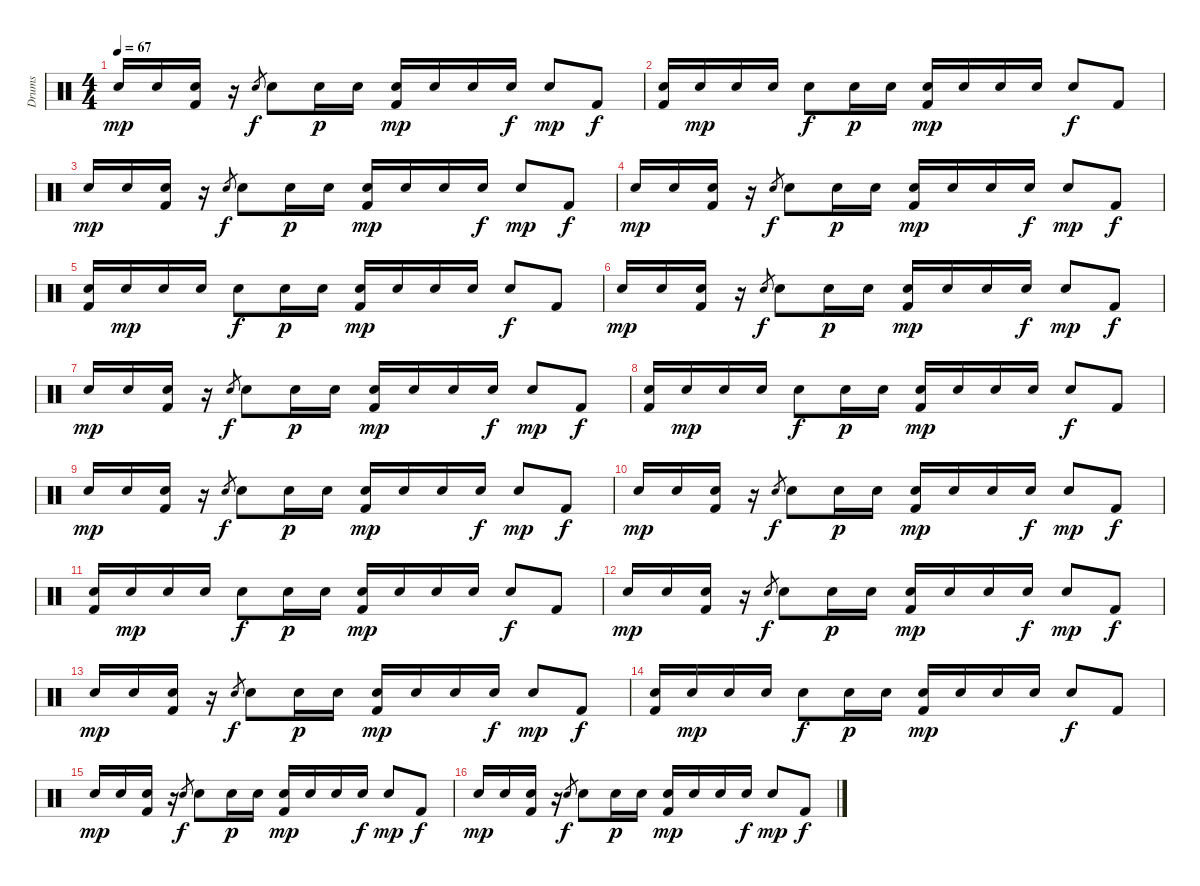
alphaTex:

\track ("Drums" "Drums") {instrument percussion}
\staff {score}
\articulation defaults
\ts (4 4)
\tempo 67
\clef neutral
\ks c "Electric Snare (hit)".16{dy mp} "Electric Snare (hit)".16
("Electric Snare (hit)" "Kick (hit) 2").16 r.16 "Electric Snare (hit)".8{gr dy f} "Electric Snare (hit)".8 "Electric Snare (hit)".16{dy p} "Electric Snare (hit)".16 ("Electric Snare (hit)" "Kick (hit) 2").16{dy mp} "Electric Snare (hit)".16 "Electric Snare (hit)".16 "Electric Snare (hit)".16{dy f} "Electric Snare (hit)".8{dy mp} "Kick (hit) 2".8{dy f} |
("Electric Snare (hit)" "Kick (hit) 2").16 "Electric Snare (hit)".16{dy mp} "Electric Snare (hit)".16 "Electric Snare (hit)".16 "Electric Snare (hit)".8{dy f} "Electric Snare (hit)".16{dy p} "Electric Snare (hit)".16 ("Electric Snare (hit)" "Kick (hit) 2").16{dy mp} "Electric Snare (hit)".16 "Electric Snare (hit)".16 "Electric Snare (hit)".16 "Electric Snare (hit)".8{dy f} "Kick (hit) 2".8 |
"Electric Snare (hit)".16{dy mp} "Electric Snare (hit)".16 ("Electric Snare (hit)" "Kick (hit) 2").16 r.16 "Electric Snare (hit)".8{gr dy f} "Electric Snare (hit)".8 "Electric Snare (hit)".16{dy p} "Electric Snare (hit)".16 ("Electric Snare (hit)" "Kick (hit) 2").16{dy mp} "Electric Snare (hit)".16 "Electric Snare (hit)".16 "Electric Snare (hit)".16{dy f} "Electric Snare (hit)".8{dy mp} "Kick (hit) 2".8{dy f} |
"Electric Snare (hit)".16{dy mp} "Electric Snare (hit)".16 ("Electric Snare (hit)" "Kick (hit) 2").16 r.16 "Electric Snare (hit)".8{gr dy f} "Electric Snare (hit)".8 "Electric Snare (hit)".16{dy p} "Electric Snare (hit)".16 ("Electric Snare (hit)" "Kick (hit) 2").16{dy mp} "Electric Snare (hit)".16 "Electric Snare (hit)".16 "Electric Snare (hit)".16{dy f} "Electric Snare (hit)".8{dy mp} "Kick (hit) 2".8{dy f} |
("Electric Snare (hit)" "Kick (hit) 2").16 "Electric Snare (hit)".16{dy mp} "Electric Snare (hit)".16 "Electric Snare (hit)".16 "Electric Snare (hit)".8{dy f} "Electric Snare (hit)".16{dy p} "Electric Snare (hit)".16 ("Electric Snare (hit)" "Kick (hit) 2").16{dy mp} "Electric Snare (hit)".16 "Electric Snare (hit)".16 "Electric Snare (hit)".16 "Electric Snare (hit)".8{dy f} "Kick (hit) 2".8 |
"Electric Snare (hit)".16{dy mp} "Electric Snare (hit)".16 ("Electric Snare (hit)" "Kick (hit) 2").16 r.16 "Electric Snare (hit)".8{gr dy f} "Electric Snare (hit)".8 "Electric Snare (hit)".16{dy p} "Electric Snare (hit)".16 ("Electric Snare (hit)" "Kick (hit) 2").16{dy mp} "Electric Snare (hit)".16 "Electric Snare (hit)".16 "Electric Snare (hit)".16{dy f} "Electric Snare (hit)".8{dy mp} "Kick (hit) 2".8{dy f} |
"Electric Snare (hit)".16{dy mp} "Electric Snare (hit)".16 ("Electric Snare (hit)" "Kick (hit) 2").16 r.16 "Electric Snare (hit)".8{gr dy f} "Electric Snare (hit)".8 "Electric Snare (hit)".16{dy p} "Electric Snare (hit)".16 ("Electric Snare (hit)" "Kick (hit) 2").16{dy mp} "Electric Snare (hit)".16 "Electric Snare (hit)".16 "Electric Snare (hit)".16{dy f} "Electric Snare (hit)".8{dy mp} "Kick (hit) 2".8{dy f} |
("Electric Snare (hit)" "Kick (hit) 2").16 "Electric Snare (hit)".16{dy mp} "Electric Snare (hit)".16 "Electric Snare (hit)".16 "Electric Snare (hit)".8{dy f} "Electric Snare (hit)".16{dy p} "Electric Snare (hit)".16 ("Electric Snare (hit)" "Kick (hit) 2").16{dy mp} "Electric Snare (hit)".16 "Electric Snare (hit)".16 "Electric Snare (hit)".16 "Electric Snare (hit)".8{dy f} "Kick (hit) 2".8 |
"Electric Snare (hit)".16{dy mp} "Electric Snare (hit)".16 ("Electric Snare (hit)" "Kick (hit) 2").16 r.16 "Electric Snare (hit)".8{gr dy f} "Electric Snare (hit)".8 "Electric Snare (hit)".16{dy p} "Electric Snare (hit)".16 ("Electric Snare (hit)" "Kick (hit) 2").16{dy mp} "Electric Snare (hit)".16 "Electric Snare (hit)".16 "Electric Snare (hit)".16{dy f} "Electric Snare (hit)".8{dy mp} "Kick (hit) 2".8{dy f} |
"Electric Snare (hit)".16{dy mp} "Electric Snare (hit)".16 ("Electric Snare (hit)" "Kick (hit) 2").16 r.16 "Electric Snare (hit)".8{gr dy f} "Electric Snare (hit)".8 "Electric Snare (hit)".16{dy p} "Electric Snare (hit)".16 ("Electric Snare (hit)" "Kick (hit) 2").16{dy mp} "Electric Snare (hit)".16 "Electric Snare (hit)".16 "Electric Snare (hit)".16{dy f} "Electric Snare (hit)".8{dy mp} "Kick (hit) 2".8{dy f} |
("Electric Snare (hit)" "Kick (hit) 2").16 "Electric Snare (hit)".16{dy mp} "Electric Snare (hit)".16 "Electric Snare (hit)".16 "Electric Snare (hit)".8{dy f} "Electric Snare (hit)".16{dy p} "Electric Snare (hit)".16 ("Electric Snare (hit)" "Kick (hit) 2").16{dy mp} "Electric Snare (hit)".16 "Electric Snare (hit)".16 "Electric Snare (hit)".16 "Electric Snare (hit)".8{dy f} "Kick (hit) 2".8 |
"Electric Snare (hit)".16{dy mp} "Electric Snare (hit)".16 ("Electric Snare (hit)" "Kick (hit) 2").16 r.16 "Electric Snare (hit)".8{gr dy f} "Electric Snare (hit)".8 "Electric Snare (hit)".16{dy p} "Electric Snare (hit)".16 ("Electric Snare (hit)" "Kick (hit) 2").16{dy mp} "Electric Snare (hit)".16 "Electric Snare (hit)".16 "Electric Snare (hit)".16{dy f} "Electric Snare (hit)".8{dy mp} "Kick (hit) 2".8{dy f} |
"Electric Snare (hit)".16{dy mp} "Electric Snare (hit)".16 ("Electric Snare (hit)" "Kick (hit) 2").16 r.16 "Electric Snare (hit)".8{gr dy f} "Electric Snare (hit)".8 "Electric Snare (hit)".16{dy p} "Electric Snare (hit)".16 ("Electric Snare (hit)" "Kick (hit) 2").16{dy mp} "Electric Snare (hit)".16 "Electric Snare (hit)".16 "Electric Snare (hit)".16{dy f} "Electric Snare (hit)".8{dy mp} "Kick (hit) 2".8{dy f} |
("Electric Snare (hit)" "Kick (hit) 2").16 "Electric Snare (hit)".16{dy mp} "Electric Snare (hit)".16 "Electric Snare (hit)".16 "Electric Snare (hit)".8{dy f} "Electric Snare (hit)".16{dy p} "Electric Snare (hit)".16 ("Electric Snare (hit)" "Kick (hit) 2").16{dy mp} "Electric Snare (hit)".16 "Electric Snare (hit)".16 "Electric Snare (hit)".16 "Electric Snare (hit)".8{dy f} "Kick (hit) 2".8 |
"Electric Snare (hit)".16{dy mp} "Electric Snare (hit)".16 ("Electric Snare (hit)" "Kick (hit) 2").16 r.16 "Electric Snare (hit)".8{gr dy f} "Electric Snare (hit)".8 "Electric Snare (hit)".16{dy p} "Electric Snare (hit)".16 ("Electric Snare (hit)" "Kick (hit) 2").16{dy mp} "Electric Snare (hit)".16 "Electric Snare (hit)".16 "Electric Snare (hit)".16{dy f} "Electric Snare (hit)".8{dy mp} "Kick (hit) 2".8{dy f} |
"Electric Snare (hit)".16{dy mp} "Electric Snare (hit)".16 ("Electric Snare (hit)" "Kick (hit) 2").16 r.16 "Electric Snare (hit)".8{gr dy f} "Electric Snare (hit)".8 "Electric Snare (hit)".16{dy p} "Electric Snare (hit)".16 ("Electric Snare (hit)" "Kick (hit) 2").16{dy mp} "Electric Snare (hit)".16 "Electric Snare (hit)".16 "Electric Snare (hit)".16{dy f} "Electric Snare (hit)".8{dy mp} "Kick (hit) 2".8{dy f}
